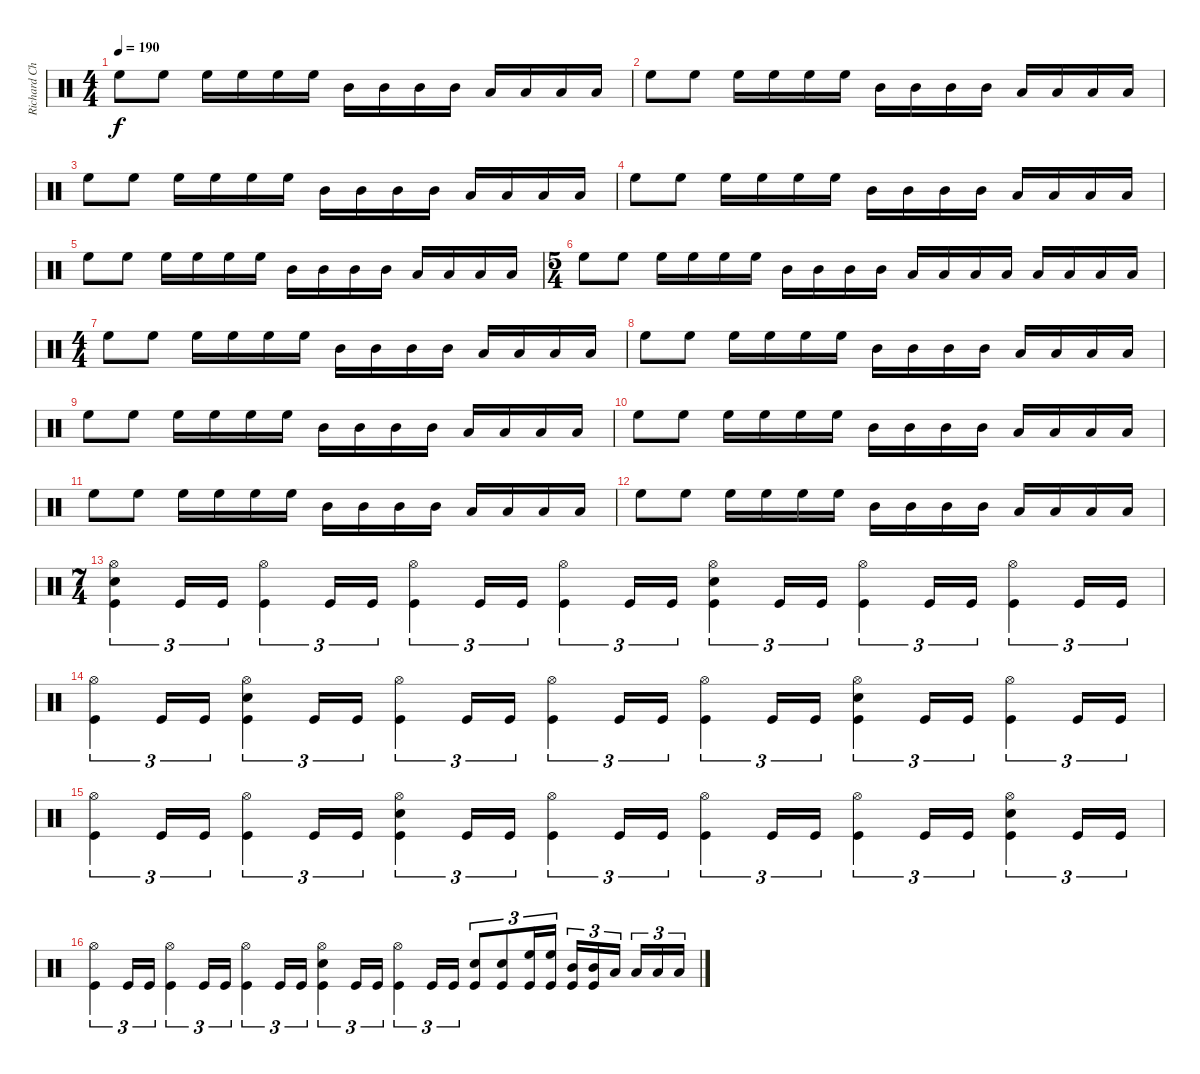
\track ("Richard Christy" "Richard Ch") {instrument percussion}
\staff {score}
\articulation defaults
\ts (4 4)
\tempo 190
\clef neutral
\ks c "High Floor Tom (hit)".8{dy f} "High Floor Tom (hit)".8 "High Floor Tom (hit)".16 "High Floor Tom (hit)".16 "High Floor Tom (hit)".16 "High Floor Tom (hit)".16 "Mid Tom (hit)".16 "Mid Tom (hit)".16 "Mid Tom (hit)".16 "Mid Tom (hit)".16 "Low Tom (hit)".16 "Low Tom (hit)".16 "Low Tom (hit)".16 "Low Tom (hit)".16
|
"High Floor Tom (hit)".8 "High Floor Tom (hit)".8 "High Floor Tom (hit)".16 "High Floor Tom (hit)".16 "High Floor Tom (hit)".16 "High Floor Tom (hit)".16 "Mid Tom (hit)".16 "Mid Tom (hit)".16 "Mid Tom (hit)".16 "Mid Tom (hit)".16 "Low Tom (hit)".16 "Low Tom (hit)".16 "Low Tom (hit)".16 "Low Tom (hit)".16 |
"High Floor Tom (hit)".8 "High Floor Tom (hit)".8 "High Floor Tom (hit)".16 "High Floor Tom (hit)".16 "High Floor Tom (hit)".16 "High Floor Tom (hit)".16 "Mid Tom (hit)".16 "Mid Tom (hit)".16 "Mid Tom (hit)".16 "Mid Tom (hit)".16 "Low Tom (hit)".16 "Low Tom (hit)".16 "Low Tom (hit)".16 "Low Tom (hit)".16 |
"High Floor Tom (hit)".8 "High Floor Tom (hit)".8 "High Floor Tom (hit)".16 "High Floor Tom (hit)".16 "High Floor Tom (hit)".16 "High Floor Tom (hit)".16 "Mid Tom (hit)".16 "Mid Tom (hit)".16 "Mid Tom (hit)".16 "Mid Tom (hit)".16 "Low Tom (hit)".16 "Low Tom (hit)".16 "Low Tom (hit)".16 "Low Tom (hit)".16 |
"High Floor Tom (hit)".8 "High Floor Tom (hit)".8 "High Floor Tom (hit)".16 "High Floor Tom (hit)".16 "High Floor Tom (hit)".16 "High Floor Tom (hit)".16 "Mid Tom (hit)".16 "Mid Tom (hit)".16 "Mid Tom (hit)".16 "Mid Tom (hit)".16 "Low Tom (hit)".16 "Low Tom (hit)".16 "Low Tom (hit)".16 "Low Tom (hit)".16 |
\ts (5 4)
"High Floor Tom (hit)".8 "High Floor Tom (hit)".8 "High Floor Tom (hit)".16 "High Floor Tom (hit)".16 "High Floor Tom (hit)".16 "High Floor Tom (hit)".16 "Mid Tom (hit)".16 "Mid Tom (hit)".16 "Mid Tom (hit)".16 "Mid Tom (hit)".16 "Low Tom (hit)".16 "Low Tom (hit)".16 "Low Tom (hit)".16 "Low Tom (hit)".16 "Low Floor Tom (hit)".16 "Low Floor Tom (hit)".16 "Low Floor Tom (hit)".16 "Low Floor Tom (hit)".16 |
\ts (4 4)
"High Floor Tom (hit)".8 "High Floor Tom (hit)".8 "High Floor Tom (hit)".16 "High Floor Tom (hit)".16 "High Floor Tom (hit)".16 "High Floor Tom (hit)".16 "Mid Tom (hit)".16 "Mid Tom (hit)".16 "Mid Tom (hit)".16 "Mid Tom (hit)".16 "Low Tom (hit)".16 "Low Tom (hit)".16 "Low Tom (hit)".16 "Low Tom (hit)".16 |
"High Floor Tom (hit)".8 "High Floor Tom (hit)".8 "High Floor Tom (hit)".16 "High Floor Tom (hit)".16 "High Floor Tom (hit)".16 "High Floor Tom (hit)".16 "Mid Tom (hit)".16 "Mid Tom (hit)".16 "Mid Tom (hit)".16 "Mid Tom (hit)".16 "Low Tom (hit)".16 "Low Tom (hit)".16 "Low Tom (hit)".16 "Low Tom (hit)".16 |
"High Floor Tom (hit)".8 "High Floor Tom (hit)".8 "High Floor Tom (hit)".16 "High Floor Tom (hit)".16 "High Floor Tom (hit)".16 "High Floor Tom (hit)".16 "Mid Tom (hit)".16 "Mid Tom (hit)".16 "Mid Tom (hit)".16 "Mid Tom (hit)".16 "Low Tom (hit)".16 "Low Tom (hit)".16 "Low Tom (hit)".16 "Low Tom (hit)".16 |
"High Floor Tom (hit)".8 "High Floor Tom (hit)".8 "High Floor Tom (hit)".16 "High Floor Tom (hit)".16 "High Floor Tom (hit)".16 "High Floor Tom (hit)".16 "Mid Tom (hit)".16 "Mid Tom (hit)".16 "Mid Tom (hit)".16 "Mid Tom (hit)".16 "Low Tom (hit)".16 "Low Tom (hit)".16 "Low Tom (hit)".16 "Low Tom (hit)".16 |
"High Floor Tom (hit)".8 "High Floor Tom (hit)".8 "High Floor Tom (hit)".16 "High Floor Tom (hit)".16 "High Floor Tom (hit)".16 "High Floor Tom (hit)".16 "Mid Tom (hit)".16 "Mid Tom (hit)".16 "Mid Tom (hit)".16 "Mid Tom (hit)".16 "Low Tom (hit)".16 "Low Tom (hit)".16 "Low Tom (hit)".16 "Low Tom (hit)".16 |
"High Floor Tom (hit)".8 "High Floor Tom (hit)".8 "High Floor Tom (hit)".16 "High Floor Tom (hit)".16 "High Floor Tom (hit)".16 "High Floor Tom (hit)".16 "Mid Tom (hit)".16 "Mid Tom (hit)".16 "Mid Tom (hit)".16 "Mid Tom (hit)".16 "Low Tom (hit)".16 "Low Tom (hit)".16 "Low Tom (hit)".16 "Low Tom (hit)".16 |
\ts (7 4)
("Hi-Hat (open)" "Electric Snare (hit)" "Kick (hit)").4{tu (3 2)} "Kick (hit)".16{tu (3 2)} "Kick (hit)".16{tu (3 2)} ("Hi-Hat (open)" "Kick (hit)").4{tu (3 2)} "Kick (hit)".16{tu (3 2)} "Kick (hit)".16{tu (3 2)} ("Hi-Hat (open)" "Kick (hit)").4{tu (3 2)} "Kick (hit)".16{tu (3 2)} "Kick (hit)".16{tu (3 2)} ("Hi-Hat (open)" "Kick (hit)").4{tu (3 2)} "Kick (hit)".16{tu (3 2)} "Kick (hit)".16{tu (3 2)} ("Hi-Hat (open)" "Electric Snare (hit)" "Kick (hit)").4{tu (3 2)} "Kick (hit)".16{tu (3 2)} "Kick (hit)".16{tu (3 2)} ("Hi-Hat (open)" "Kick (hit)").4{tu (3 2)} "Kick (hit)".16{tu (3 2)} "Kick (hit)".16{tu (3 2)} ("Hi-Hat (open)" "Kick (hit)").4{tu (3 2)} "Kick (hit)".16{tu (3 2)} "Kick (hit)".16{tu (3 2)} |
("Hi-Hat (open)" "Kick (hit)").4{tu (3 2)} "Kick (hit)".16{tu (3 2)} "Kick (hit)".16{tu (3 2)} ("Hi-Hat (open)" "Electric Snare (hit)" "Kick (hit)").4{tu (3 2)} "Kick (hit)".16{tu (3 2)} "Kick (hit)".16{tu (3 2)} ("Hi-Hat (open)" "Kick (hit)").4{tu (3 2)} "Kick (hit)".16{tu (3 2)} "Kick (hit)".16{tu (3 2)} ("Hi-Hat (open)" "Kick (hit)").4{tu (3 2)} "Kick (hit)".16{tu (3 2)} "Kick (hit)".16{tu (3 2)} ("Hi-Hat (open)" "Kick (hit)").4{tu (3 2)} "Kick (hit)".16{tu (3 2)} "Kick (hit)".16{tu (3 2)} ("Hi-Hat (open)" "Electric Snare (hit)" "Kick (hit)").4{tu (3 2)} "Kick (hit)".16{tu (3 2)} "Kick (hit)".16{tu (3 2)} ("Hi-Hat (open)" "Kick (hit)").4{tu (3 2)} "Kick (hit)".16{tu (3 2)} "Kick (hit)".16{tu (3 2)} |
("Hi-Hat (open)" "Kick (hit)").4{tu (3 2)} "Kick (hit)".16{tu (3 2)} "Kick (hit)".16{tu (3 2)} ("Hi-Hat (open)" "Kick (hit)").4{tu (3 2)} "Kick (hit)".16{tu (3 2)} "Kick (hit)".16{tu (3 2)} ("Hi-Hat (open)" "Electric Snare (hit)" "Kick (hit)").4{tu (3 2)} "Kick (hit)".16{tu (3 2)} "Kick (hit)".16{tu (3 2)} ("Hi-Hat (open)" "Kick (hit)").4{tu (3 2)} "Kick (hit)".16{tu (3 2)} "Kick (hit)".16{tu (3 2)} ("Hi-Hat (open)" "Kick (hit)").4{tu (3 2)} "Kick (hit)".16{tu (3 2)} "Kick (hit)".16{tu (3 2)} ("Hi-Hat (open)" "Kick (hit)").4{tu (3 2)} "Kick (hit)".16{tu (3 2)} "Kick (hit)".16{tu (3 2)} ("Hi-Hat (open)" "Electric Snare (hit)" "Kick (hit)").4{tu (3 2)} "Kick (hit)".16{tu (3 2)} "Kick (hit)".16{tu (3 2)} |
("Hi-Hat (open)" "Kick (hit)").4{tu (3 2)} "Kick (hit)".16{tu (3 2)} "Kick (hit)".16{tu (3 2)} ("Hi-Hat (open)" "Kick (hit)").4{tu (3 2)} "Kick (hit)".16{tu (3 2)} "Kick (hit)".16{tu (3 2)} ("Hi-Hat (open)" "Kick (hit)").4{tu (3 2)} "Kick (hit)".16{tu (3 2)} "Kick (hit)".16{tu (3 2)} ("Hi-Hat (open)" "Electric Snare (hit)" "Kick (hit)").4{tu (3 2)} "Kick (hit)".16{tu (3 2)} "Kick (hit)".16{tu (3 2)} ("Hi-Hat (open)" "Kick (hit)").4{tu (3 2)} "Kick (hit)".16{tu (3 2)} "Kick (hit)".16{tu (3 2)} ("Electric Snare (hit)" "Kick (hit)").8{tu (3 2)} ("Electric Snare (hit)" "Kick (hit)").8{tu (3 2)} ("High Floor Tom (hit)" "Kick (hit)").16{tu (3 2)} ("High Floor Tom (hit)" "Kick (hit)").16{tu (3 2)} ("Mid Tom (hit)" "Kick (hit)").16{tu (3 2)} ("Mid Tom (hit)" "Kick (hit)").16{tu (3 2)} "Low Tom (hit)".16{tu (3 2)} "Low Tom (hit)".16{tu (3 2)} "Low Floor Tom (hit)".16{tu (3 2)} "Low Floor Tom (hit)".16{tu (3 2)}
